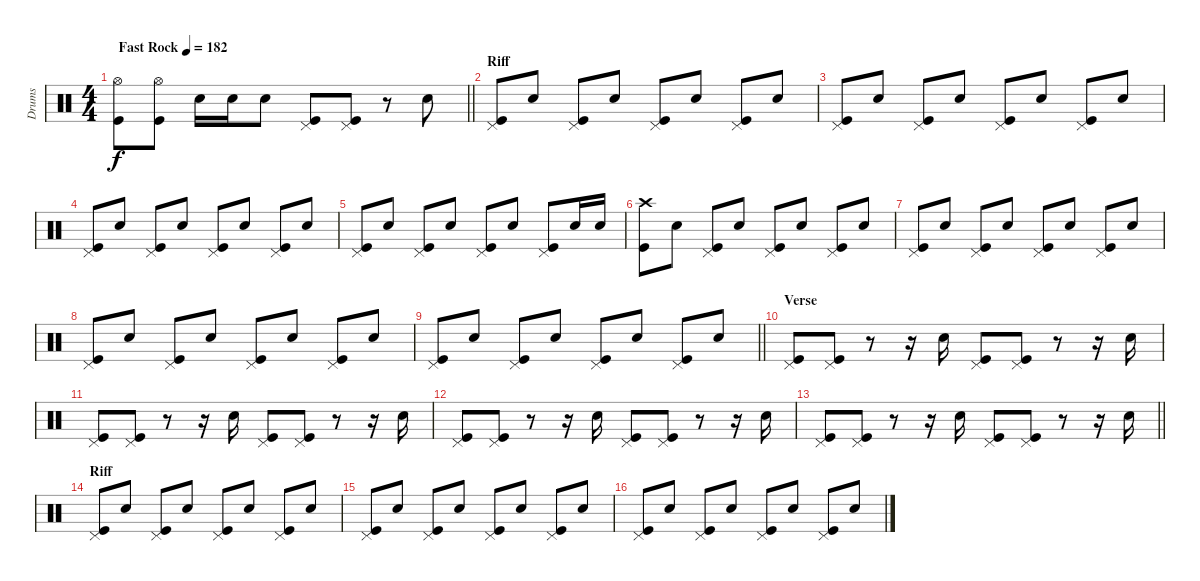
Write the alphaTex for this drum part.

\track ("Drums" "Drums") {instrument percussion}
\staff {score}
\articulation defaults
\ts (4 4)
\tempo (182 "Fast Rock")
\clef neutral
\barLineRight lightlight
\ks c
("Hi-Hat (open)" "Kick (hit)").8{dy f} ("Hi-Hat (open)" "Kick (hit)").8 "Snare (hit) 2".16 "Snare (hit) 2".16 "Snare (hit) 2".8 ("Pedal Hi-Hat (hit)" "Kick (hit)").8 ("Pedal Hi-Hat (hit)" "Kick (hit)").8 r.8 "Snare (hit) 2".8 |
\section ("" "Riff")
("Pedal Hi-Hat (hit)" "Kick (hit)").8 "Snare (hit) 2".8 ("Pedal Hi-Hat (hit)" "Kick (hit)").8 "Snare (hit) 2".8 ("Pedal Hi-Hat (hit)" "Kick (hit)").8 "Snare (hit) 2".8 ("Pedal Hi-Hat (hit)" "Kick (hit)").8 "Snare (hit) 2".8 |
("Pedal Hi-Hat (hit)" "Kick (hit)").8 "Snare (hit) 2".8 ("Pedal Hi-Hat (hit)" "Kick (hit)").8 "Snare (hit) 2".8 ("Pedal Hi-Hat (hit)" "Kick (hit)").8 "Snare (hit) 2".8 ("Pedal Hi-Hat (hit)" "Kick (hit)").8 "Snare (hit) 2".8 |
("Pedal Hi-Hat (hit)" "Kick (hit)").8 "Snare (hit) 2".8 ("Pedal Hi-Hat (hit)" "Kick (hit)").8 "Snare (hit) 2".8 ("Pedal Hi-Hat (hit)" "Kick (hit)").8 "Snare (hit) 2".8 ("Pedal Hi-Hat (hit)" "Kick (hit)").8 "Snare (hit) 2".8 |
("Pedal Hi-Hat (hit)" "Kick (hit)").8 "Snare (hit) 2".8 ("Pedal Hi-Hat (hit)" "Kick (hit)").8 "Snare (hit) 2".8 ("Pedal Hi-Hat (hit)" "Kick (hit)").8 "Snare (hit) 2".8 ("Pedal Hi-Hat (hit)" "Kick (hit)").8 "Snare (hit) 2".16 "Snare (hit) 2".16 |
("Crash high (hit)" "Kick (hit)").8 "Snare (hit) 2".8 ("Pedal Hi-Hat (hit)" "Kick (hit)").8 "Snare (hit) 2".8 ("Pedal Hi-Hat (hit)" "Kick (hit)").8 "Snare (hit) 2".8 ("Pedal Hi-Hat (hit)" "Kick (hit)").8 "Snare (hit) 2".8 |
("Pedal Hi-Hat (hit)" "Kick (hit)").8 "Snare (hit) 2".8 ("Pedal Hi-Hat (hit)" "Kick (hit)").8 "Snare (hit) 2".8 ("Pedal Hi-Hat (hit)" "Kick (hit)").8 "Snare (hit) 2".8 ("Pedal Hi-Hat (hit)" "Kick (hit)").8 "Snare (hit) 2".8 |
("Pedal Hi-Hat (hit)" "Kick (hit)").8 "Snare (hit) 2".8 ("Pedal Hi-Hat (hit)" "Kick (hit)").8 "Snare (hit) 2".8 ("Pedal Hi-Hat (hit)" "Kick (hit)").8 "Snare (hit) 2".8 ("Pedal Hi-Hat (hit)" "Kick (hit)").8 "Snare (hit) 2".8 |
\barLineRight lightlight
("Pedal Hi-Hat (hit)" "Kick (hit)").8 "Snare (hit) 2".8 ("Pedal Hi-Hat (hit)" "Kick (hit)").8 "Snare (hit) 2".8 ("Pedal Hi-Hat (hit)" "Kick (hit)").8 "Snare (hit) 2".8 ("Pedal Hi-Hat (hit)" "Kick (hit)").8 "Snare (hit) 2".8 |
\section ("" "Verse")
("Pedal Hi-Hat (hit)" "Kick (hit)").8 ("Pedal Hi-Hat (hit)" "Kick (hit)").8 r.8 r.16 "Snare (hit) 2".16 ("Pedal Hi-Hat (hit)" "Kick (hit)").8 ("Pedal Hi-Hat (hit)" "Kick (hit)").8 r.8 r.16 "Snare (hit) 2".16 |
("Pedal Hi-Hat (hit)" "Kick (hit)").8 ("Pedal Hi-Hat (hit)" "Kick (hit)").8 r.8 r.16 "Snare (hit) 2".16 ("Pedal Hi-Hat (hit)" "Kick (hit)").8 ("Pedal Hi-Hat (hit)" "Kick (hit)").8 r.8 r.16 "Snare (hit) 2".16 |
("Pedal Hi-Hat (hit)" "Kick (hit)").8 ("Pedal Hi-Hat (hit)" "Kick (hit)").8 r.8 r.16 "Snare (hit) 2".16 ("Pedal Hi-Hat (hit)" "Kick (hit)").8 ("Pedal Hi-Hat (hit)" "Kick (hit)").8 r.8 r.16 "Snare (hit) 2".16 |
\barLineRight lightlight
("Pedal Hi-Hat (hit)" "Kick (hit)").8 ("Pedal Hi-Hat (hit)" "Kick (hit)").8 r.8 r.16 "Snare (hit) 2".16 ("Pedal Hi-Hat (hit)" "Kick (hit)").8 ("Pedal Hi-Hat (hit)" "Kick (hit)").8 r.8 r.16 "Snare (hit) 2".16 |
\section ("" "Riff")
("Pedal Hi-Hat (hit)" "Kick (hit)").8 "Snare (hit) 2".8 ("Pedal Hi-Hat (hit)" "Kick (hit)").8 "Snare (hit) 2".8 ("Pedal Hi-Hat (hit)" "Kick (hit)").8 "Snare (hit) 2".8 ("Pedal Hi-Hat (hit)" "Kick (hit)").8 "Snare (hit) 2".8 |
("Pedal Hi-Hat (hit)" "Kick (hit)").8 "Snare (hit) 2".8 ("Pedal Hi-Hat (hit)" "Kick (hit)").8 "Snare (hit) 2".8 ("Pedal Hi-Hat (hit)" "Kick (hit)").8 "Snare (hit) 2".8 ("Pedal Hi-Hat (hit)" "Kick (hit)").8 "Snare (hit) 2".8 |
("Pedal Hi-Hat (hit)" "Kick (hit)").8 "Snare (hit) 2".8 ("Pedal Hi-Hat (hit)" "Kick (hit)").8 "Snare (hit) 2".8 ("Pedal Hi-Hat (hit)" "Kick (hit)").8 "Snare (hit) 2".8 ("Pedal Hi-Hat (hit)" "Kick (hit)").8 "Snare (hit) 2".8
